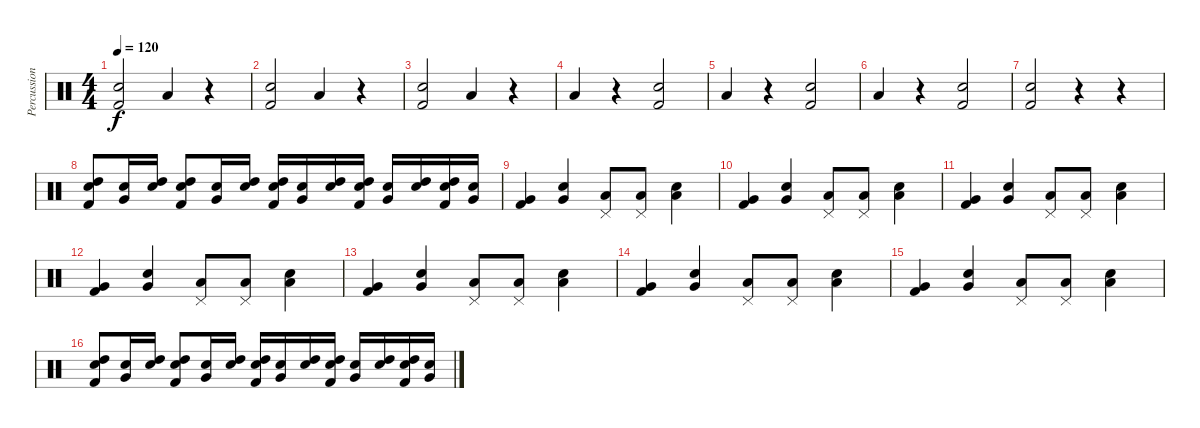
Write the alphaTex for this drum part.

\track ("Percussion" "Percussion") {instrument percussion}
\staff {score}
\articulation defaults
\ts (4 4)
\tempo 120
\clef neutral
\ks c
("Kick (hit) 2" "Snare (hit) 2").2{dy f} "Low Tom (hit)".4 r.4 |
("Kick (hit) 2" "Snare (hit) 2").2 "Low Tom (hit)".4 r.4 |
("Kick (hit) 2" "Snare (hit) 2").2 "Low Tom (hit)".4 r.4 |
"Low Tom (hit)".4 r.4 ("Kick (hit) 2" "Snare (hit) 2").2 |
"Low Tom (hit)".4 r.4 ("Kick (hit) 2" "Snare (hit) 2").2 |
"Low Tom (hit)".4 r.4 ("Kick (hit) 2" "Snare (hit) 2").2 |
("Kick (hit) 2" "Snare (hit) 2").2 r.4 r.4 |
("High Tom (hit)" "Snare (hit) 2" "Kick (hit) 2").8 ("Very Low Tom (hit)" "Snare (hit) 2").16 ("High Tom (hit)" "Snare (hit) 2").16 ("High Tom (hit)" "Snare (hit) 2" "Kick (hit) 2").8 ("Very Low Tom (hit)" "Snare (hit) 2").16 ("High Tom (hit)" "Snare (hit) 2").16 ("High Tom (hit)" "Snare (hit) 2" "Kick (hit) 2").16 ("Very Low Tom (hit)" "Snare (hit) 2").16 ("High Tom (hit)" "Snare (hit) 2").16 ("High Tom (hit)" "Snare (hit) 2" "Kick (hit) 2").16 ("Very Low Tom (hit)" "Snare (hit) 2").16 ("High Tom (hit)" "Snare (hit) 2").16 ("High Tom (hit)" "Snare (hit) 2" "Kick (hit) 2").16 ("Very Low Tom (hit)" "Snare (hit) 2").16 |
("Very Low Tom (hit)" "Kick (hit) 2").4 ("Very Low Tom (hit)" "Snare (hit) 2").4 ("Pedal Hi-Hat (hit)" "Low Tom (hit)").8 ("Pedal Hi-Hat (hit)" "Low Tom (hit)").8 ("Low Tom (hit)" "Snare (hit) 2").4 |
("Very Low Tom (hit)" "Kick (hit) 2").4 ("Very Low Tom (hit)" "Snare (hit) 2").4 ("Pedal Hi-Hat (hit)" "Low Tom (hit)").8 ("Pedal Hi-Hat (hit)" "Low Tom (hit)").8 ("Low Tom (hit)" "Snare (hit) 2").4 |
("Very Low Tom (hit)" "Kick (hit) 2").4 ("Very Low Tom (hit)" "Snare (hit) 2").4 ("Pedal Hi-Hat (hit)" "Low Tom (hit)").8 ("Pedal Hi-Hat (hit)" "Low Tom (hit)").8 ("Low Tom (hit)" "Snare (hit) 2").4 |
("Very Low Tom (hit)" "Kick (hit) 2").4 ("Very Low Tom (hit)" "Snare (hit) 2").4 ("Pedal Hi-Hat (hit)" "Low Tom (hit)").8 ("Pedal Hi-Hat (hit)" "Low Tom (hit)").8 ("Low Tom (hit)" "Snare (hit) 2").4 |
("Very Low Tom (hit)" "Kick (hit) 2").4 ("Very Low Tom (hit)" "Snare (hit) 2").4 ("Pedal Hi-Hat (hit)" "Low Tom (hit)").8 ("Pedal Hi-Hat (hit)" "Low Tom (hit)").8 ("Low Tom (hit)" "Snare (hit) 2").4 |
("Very Low Tom (hit)" "Kick (hit) 2").4 ("Very Low Tom (hit)" "Snare (hit) 2").4 ("Pedal Hi-Hat (hit)" "Low Tom (hit)").8 ("Pedal Hi-Hat (hit)" "Low Tom (hit)").8 ("Low Tom (hit)" "Snare (hit) 2").4 |
("Very Low Tom (hit)" "Kick (hit) 2").4 ("Very Low Tom (hit)" "Snare (hit) 2").4 ("Pedal Hi-Hat (hit)" "Low Tom (hit)").8 ("Pedal Hi-Hat (hit)" "Low Tom (hit)").8 ("Low Tom (hit)" "Snare (hit) 2").4 |
("High Tom (hit)" "Snare (hit) 2" "Kick (hit) 2").8 ("Very Low Tom (hit)" "Snare (hit) 2").16 ("High Tom (hit)" "Snare (hit) 2").16 ("High Tom (hit)" "Snare (hit) 2" "Kick (hit) 2").8 ("Very Low Tom (hit)" "Snare (hit) 2").16 ("High Tom (hit)" "Snare (hit) 2").16 ("High Tom (hit)" "Snare (hit) 2" "Kick (hit) 2").16 ("Very Low Tom (hit)" "Snare (hit) 2").16 ("High Tom (hit)" "Snare (hit) 2").16 ("High Tom (hit)" "Snare (hit) 2" "Kick (hit) 2").16 ("Very Low Tom (hit)" "Snare (hit) 2").16 ("High Tom (hit)" "Snare (hit) 2").16 ("High Tom (hit)" "Snare (hit) 2" "Kick (hit) 2").16 ("Very Low Tom (hit)" "Snare (hit) 2").16
